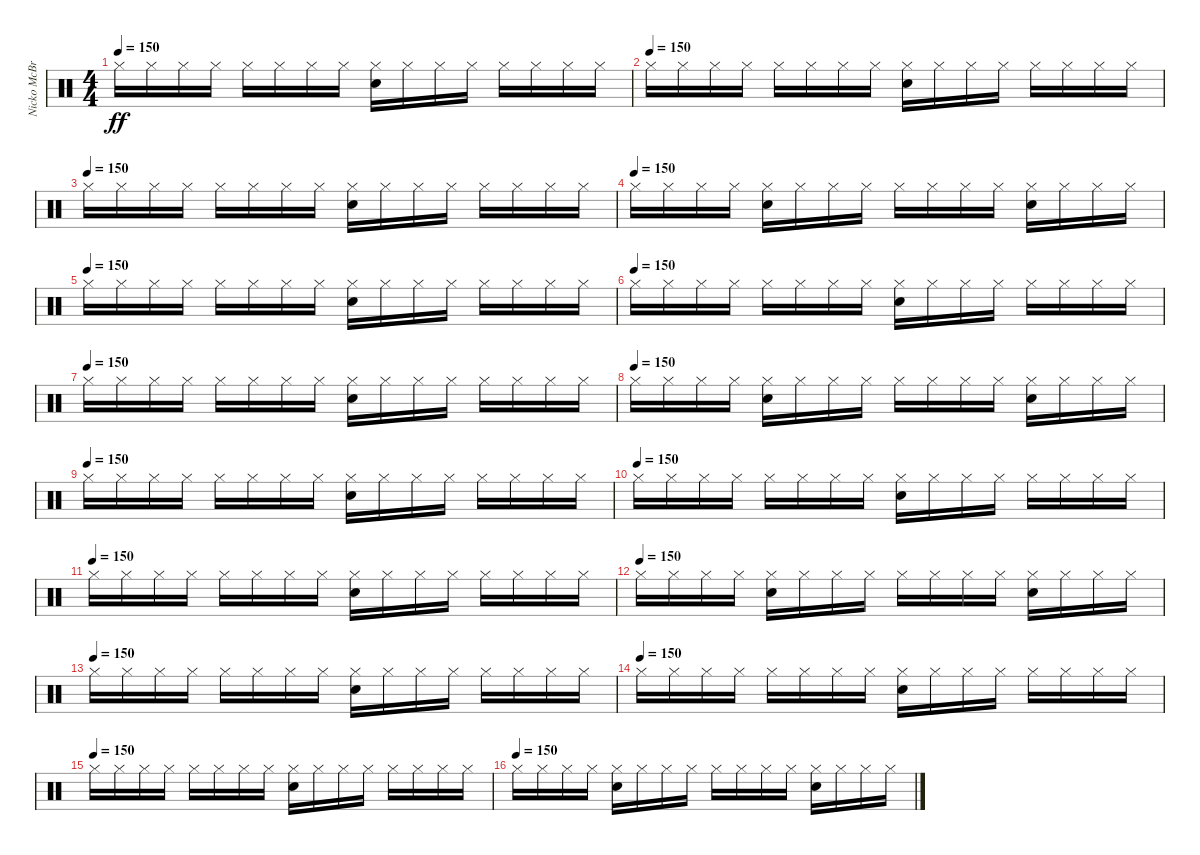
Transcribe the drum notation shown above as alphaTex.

\track ("Nicko McBrain" "Nicko McBr") {instrument percussion}
\staff {score}
\articulation defaults
\ts (4 4)
\tempo 150
\clef neutral
\ks c "Hi-Hat (closed)".16{dy ff} "Hi-Hat (closed)".16 "Hi-Hat (closed)".16 "Hi-Hat (closed)".16 "Hi-Hat (closed)".16 "Hi-Hat (closed)".16 "Hi-Hat (closed)".16 "Hi-Hat (closed)".16
("Snare (hit) 2" "Hi-Hat (closed)").16 "Hi-Hat (closed)".16 "Hi-Hat (closed)".16 "Hi-Hat (closed)".16 "Hi-Hat (closed)".16 "Hi-Hat (closed)".16 "Hi-Hat (closed)".16 "Hi-Hat (closed)".16 |
\tempo (150)
"Hi-Hat (closed)".16 "Hi-Hat (closed)".16 "Hi-Hat (closed)".16 "Hi-Hat (closed)".16 "Hi-Hat (closed)".16 "Hi-Hat (closed)".16 "Hi-Hat (closed)".16 "Hi-Hat (closed)".16 ("Snare (hit) 2" "Hi-Hat (closed)").16 "Hi-Hat (closed)".16 "Hi-Hat (closed)".16 "Hi-Hat (closed)".16 "Hi-Hat (closed)".16 "Hi-Hat (closed)".16 "Hi-Hat (closed)".16 "Hi-Hat (closed)".16 |
\tempo (150)
"Hi-Hat (closed)".16 "Hi-Hat (closed)".16 "Hi-Hat (closed)".16 "Hi-Hat (closed)".16 "Hi-Hat (closed)".16 "Hi-Hat (closed)".16 "Hi-Hat (closed)".16 "Hi-Hat (closed)".16 ("Snare (hit) 2" "Hi-Hat (closed)").16 "Hi-Hat (closed)".16 "Hi-Hat (closed)".16 "Hi-Hat (closed)".16 "Hi-Hat (closed)".16 "Hi-Hat (closed)".16 "Hi-Hat (closed)".16 "Hi-Hat (closed)".16 |
\tempo (150)
"Hi-Hat (closed)".16 "Hi-Hat (closed)".16 "Hi-Hat (closed)".16 "Hi-Hat (closed)".16 ("Snare (hit) 2" "Hi-Hat (closed)").16 "Hi-Hat (closed)".16 "Hi-Hat (closed)".16 "Hi-Hat (closed)".16 "Hi-Hat (closed)".16 "Hi-Hat (closed)".16 "Hi-Hat (closed)".16 "Hi-Hat (closed)".16 ("Snare (hit) 2" "Hi-Hat (closed)").16 "Hi-Hat (closed)".16 "Hi-Hat (closed)".16 "Hi-Hat (closed)".16 |
\tempo (150)
"Hi-Hat (closed)".16 "Hi-Hat (closed)".16 "Hi-Hat (closed)".16 "Hi-Hat (closed)".16 "Hi-Hat (closed)".16 "Hi-Hat (closed)".16 "Hi-Hat (closed)".16 "Hi-Hat (closed)".16 ("Snare (hit) 2" "Hi-Hat (closed)").16 "Hi-Hat (closed)".16 "Hi-Hat (closed)".16 "Hi-Hat (closed)".16 "Hi-Hat (closed)".16 "Hi-Hat (closed)".16 "Hi-Hat (closed)".16 "Hi-Hat (closed)".16 |
\tempo (150)
"Hi-Hat (closed)".16 "Hi-Hat (closed)".16 "Hi-Hat (closed)".16 "Hi-Hat (closed)".16 "Hi-Hat (closed)".16 "Hi-Hat (closed)".16 "Hi-Hat (closed)".16 "Hi-Hat (closed)".16 ("Snare (hit) 2" "Hi-Hat (closed)").16 "Hi-Hat (closed)".16 "Hi-Hat (closed)".16 "Hi-Hat (closed)".16 "Hi-Hat (closed)".16 "Hi-Hat (closed)".16 "Hi-Hat (closed)".16 "Hi-Hat (closed)".16 |
\tempo (150)
"Hi-Hat (closed)".16 "Hi-Hat (closed)".16 "Hi-Hat (closed)".16 "Hi-Hat (closed)".16 "Hi-Hat (closed)".16 "Hi-Hat (closed)".16 "Hi-Hat (closed)".16 "Hi-Hat (closed)".16 ("Snare (hit) 2" "Hi-Hat (closed)").16 "Hi-Hat (closed)".16 "Hi-Hat (closed)".16 "Hi-Hat (closed)".16 "Hi-Hat (closed)".16 "Hi-Hat (closed)".16 "Hi-Hat (closed)".16 "Hi-Hat (closed)".16 |
\tempo (150)
"Hi-Hat (closed)".16 "Hi-Hat (closed)".16 "Hi-Hat (closed)".16 "Hi-Hat (closed)".16 ("Snare (hit) 2" "Hi-Hat (closed)").16 "Hi-Hat (closed)".16 "Hi-Hat (closed)".16 "Hi-Hat (closed)".16 "Hi-Hat (closed)".16 "Hi-Hat (closed)".16 "Hi-Hat (closed)".16 "Hi-Hat (closed)".16 ("Snare (hit) 2" "Hi-Hat (closed)").16 "Hi-Hat (closed)".16 "Hi-Hat (closed)".16 "Hi-Hat (closed)".16 |
\tempo (150)
"Hi-Hat (closed)".16 "Hi-Hat (closed)".16 "Hi-Hat (closed)".16 "Hi-Hat (closed)".16 "Hi-Hat (closed)".16 "Hi-Hat (closed)".16 "Hi-Hat (closed)".16 "Hi-Hat (closed)".16 ("Snare (hit) 2" "Hi-Hat (closed)").16 "Hi-Hat (closed)".16 "Hi-Hat (closed)".16 "Hi-Hat (closed)".16 "Hi-Hat (closed)".16 "Hi-Hat (closed)".16 "Hi-Hat (closed)".16 "Hi-Hat (closed)".16 |
\tempo (150)
"Hi-Hat (closed)".16 "Hi-Hat (closed)".16 "Hi-Hat (closed)".16 "Hi-Hat (closed)".16 "Hi-Hat (closed)".16 "Hi-Hat (closed)".16 "Hi-Hat (closed)".16 "Hi-Hat (closed)".16 ("Snare (hit) 2" "Hi-Hat (closed)").16 "Hi-Hat (closed)".16 "Hi-Hat (closed)".16 "Hi-Hat (closed)".16 "Hi-Hat (closed)".16 "Hi-Hat (closed)".16 "Hi-Hat (closed)".16 "Hi-Hat (closed)".16 |
\tempo (150)
"Hi-Hat (closed)".16 "Hi-Hat (closed)".16 "Hi-Hat (closed)".16 "Hi-Hat (closed)".16 "Hi-Hat (closed)".16 "Hi-Hat (closed)".16 "Hi-Hat (closed)".16 "Hi-Hat (closed)".16 ("Snare (hit) 2" "Hi-Hat (closed)").16 "Hi-Hat (closed)".16 "Hi-Hat (closed)".16 "Hi-Hat (closed)".16 "Hi-Hat (closed)".16 "Hi-Hat (closed)".16 "Hi-Hat (closed)".16 "Hi-Hat (closed)".16 |
\tempo (150)
"Hi-Hat (closed)".16 "Hi-Hat (closed)".16 "Hi-Hat (closed)".16 "Hi-Hat (closed)".16 ("Snare (hit) 2" "Hi-Hat (closed)").16 "Hi-Hat (closed)".16 "Hi-Hat (closed)".16 "Hi-Hat (closed)".16 "Hi-Hat (closed)".16 "Hi-Hat (closed)".16 "Hi-Hat (closed)".16 "Hi-Hat (closed)".16 ("Snare (hit) 2" "Hi-Hat (closed)").16 "Hi-Hat (closed)".16 "Hi-Hat (closed)".16 "Hi-Hat (closed)".16 |
\tempo (150)
"Hi-Hat (closed)".16 "Hi-Hat (closed)".16 "Hi-Hat (closed)".16 "Hi-Hat (closed)".16 "Hi-Hat (closed)".16 "Hi-Hat (closed)".16 "Hi-Hat (closed)".16 "Hi-Hat (closed)".16 ("Snare (hit) 2" "Hi-Hat (closed)").16 "Hi-Hat (closed)".16 "Hi-Hat (closed)".16 "Hi-Hat (closed)".16 "Hi-Hat (closed)".16 "Hi-Hat (closed)".16 "Hi-Hat (closed)".16 "Hi-Hat (closed)".16 |
\tempo (150)
"Hi-Hat (closed)".16 "Hi-Hat (closed)".16 "Hi-Hat (closed)".16 "Hi-Hat (closed)".16 "Hi-Hat (closed)".16 "Hi-Hat (closed)".16 "Hi-Hat (closed)".16 "Hi-Hat (closed)".16 ("Snare (hit) 2" "Hi-Hat (closed)").16 "Hi-Hat (closed)".16 "Hi-Hat (closed)".16 "Hi-Hat (closed)".16 "Hi-Hat (closed)".16 "Hi-Hat (closed)".16 "Hi-Hat (closed)".16 "Hi-Hat (closed)".16 |
\tempo (150)
"Hi-Hat (closed)".16 "Hi-Hat (closed)".16 "Hi-Hat (closed)".16 "Hi-Hat (closed)".16 "Hi-Hat (closed)".16 "Hi-Hat (closed)".16 "Hi-Hat (closed)".16 "Hi-Hat (closed)".16 ("Snare (hit) 2" "Hi-Hat (closed)").16 "Hi-Hat (closed)".16 "Hi-Hat (closed)".16 "Hi-Hat (closed)".16 "Hi-Hat (closed)".16 "Hi-Hat (closed)".16 "Hi-Hat (closed)".16 "Hi-Hat (closed)".16 |
\tempo (150)
"Hi-Hat (closed)".16 "Hi-Hat (closed)".16 "Hi-Hat (closed)".16 "Hi-Hat (closed)".16 ("Snare (hit) 2" "Hi-Hat (closed)").16 "Hi-Hat (closed)".16 "Hi-Hat (closed)".16 "Hi-Hat (closed)".16 "Hi-Hat (closed)".16 "Hi-Hat (closed)".16 "Hi-Hat (closed)".16 "Hi-Hat (closed)".16 ("Snare (hit) 2" "Hi-Hat (closed)").16 "Hi-Hat (closed)".16 "Hi-Hat (closed)".16 "Hi-Hat (closed)".16
